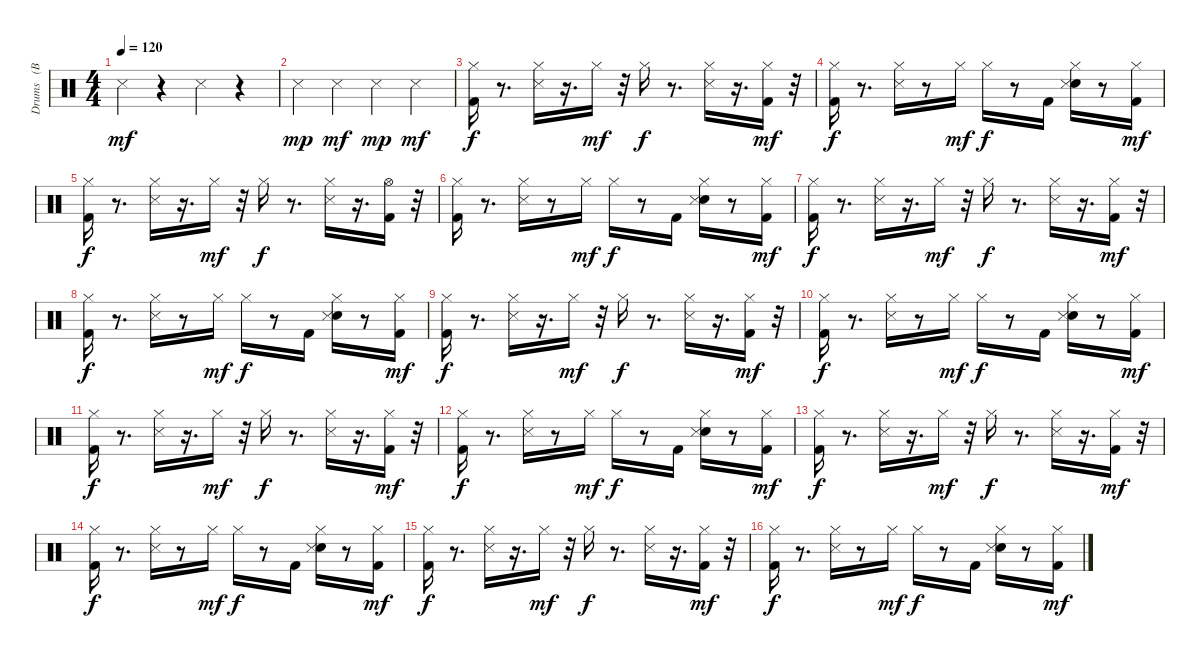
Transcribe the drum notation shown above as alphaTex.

\track ("Drums   (BB)" "Drums   (B") {instrument percussion}
\staff {score}
\articulation defaults
\ts (4 4)
\tempo 120
\clef neutral
\ks c "Snare (side stick) 3".4{dy mf}
r.4 "Snare (side stick) 3".4 r.4 |
"Snare (side stick) 3".4{dy mp} "Snare (side stick) 3".4{dy mf} "Snare (side stick) 3".4{dy mp} "Snare (side stick) 3".4{dy mf} |
("Kick (hit) 2" "Hi-Hat (closed)").16{dy f} r.8{d} ("Hi-Hat (closed)" "Snare (side stick) 3").16 r.16{d} "Hi-Hat (closed)".16{dy mf} r.32 "Hi-Hat (closed)".16{dy f} r.8{d} ("Hi-Hat (closed)" "Snare (side stick) 3").16 r.16{d} ("Kick (hit) 2" "Hi-Hat (closed)").16{dy mf} r.32 |
("Kick (hit) 2" "Hi-Hat (closed)").16{dy f} r.8{d} ("Hi-Hat (closed)" "Snare (side stick) 3").16 r.8 "Hi-Hat (closed)".16{dy mf} "Hi-Hat (closed)".16{dy f} r.8 "Kick (hit) 2".16 ("Snare (hit) 2" "Hi-Hat (closed)" "Snare (side stick) 3").16 r.8 ("Kick (hit) 2" "Hi-Hat (closed)").16{dy mf} |
("Kick (hit) 2" "Hi-Hat (closed)").16{dy f} r.8{d} ("Hi-Hat (closed)" "Snare (side stick) 3").16 r.16{d} "Hi-Hat (closed)".16{dy mf} r.32 "Hi-Hat (closed)".16{dy f} r.8{d} ("Hi-Hat (closed)" "Snare (side stick) 3").16 r.16{d} ("Kick (hit) 2" "Hi-Hat (open)").16 r.32 |
("Kick (hit) 2" "Hi-Hat (closed)").16 r.8{d} ("Hi-Hat (closed)" "Snare (side stick) 3").16 r.8 "Hi-Hat (closed)".16{dy mf} "Hi-Hat (closed)".16{dy f} r.8 "Kick (hit) 2".16 ("Snare (hit) 2" "Hi-Hat (closed)" "Snare (side stick) 3").16 r.8 ("Kick (hit) 2" "Hi-Hat (closed)").16{dy mf} |
("Kick (hit) 2" "Hi-Hat (closed)").16{dy f} r.8{d} ("Hi-Hat (closed)" "Snare (side stick) 3").16 r.16{d} "Hi-Hat (closed)".16{dy mf} r.32 "Hi-Hat (closed)".16{dy f} r.8{d} ("Hi-Hat (closed)" "Snare (side stick) 3").16 r.16{d} ("Kick (hit) 2" "Hi-Hat (closed)").16{dy mf} r.32 |
("Kick (hit) 2" "Hi-Hat (closed)").16{dy f} r.8{d} ("Hi-Hat (closed)" "Snare (side stick) 3").16 r.8 "Hi-Hat (closed)".16{dy mf} "Hi-Hat (closed)".16{dy f} r.8 "Kick (hit) 2".16 ("Snare (hit) 2" "Hi-Hat (closed)" "Snare (side stick) 3").16 r.8 ("Kick (hit) 2" "Hi-Hat (closed)").16{dy mf} |
("Kick (hit) 2" "Hi-Hat (closed)").16{dy f} r.8{d} ("Hi-Hat (closed)" "Snare (side stick) 3").16 r.16{d} "Hi-Hat (closed)".16{dy mf} r.32 "Hi-Hat (closed)".16{dy f} r.8{d} ("Hi-Hat (closed)" "Snare (side stick) 3").16 r.16{d} ("Kick (hit) 2" "Hi-Hat (closed)").16{dy mf} r.32 |
("Kick (hit) 2" "Hi-Hat (closed)").16{dy f} r.8{d} ("Hi-Hat (closed)" "Snare (side stick) 3").16 r.8 "Hi-Hat (closed)".16{dy mf} "Hi-Hat (closed)".16{dy f} r.8 "Kick (hit) 2".16 ("Snare (hit) 2" "Hi-Hat (closed)" "Snare (side stick) 3").16 r.8 ("Kick (hit) 2" "Hi-Hat (closed)").16{dy mf} |
("Kick (hit) 2" "Hi-Hat (closed)").16{dy f} r.8{d} ("Hi-Hat (closed)" "Snare (side stick) 3").16 r.16{d} "Hi-Hat (closed)".16{dy mf} r.32 "Hi-Hat (closed)".16{dy f} r.8{d} ("Hi-Hat (closed)" "Snare (side stick) 3").16 r.16{d} ("Kick (hit) 2" "Hi-Hat (closed)").16{dy mf} r.32 |
("Kick (hit) 2" "Hi-Hat (closed)").16{dy f} r.8{d} ("Hi-Hat (closed)" "Snare (side stick) 3").16 r.8 "Hi-Hat (closed)".16{dy mf} "Hi-Hat (closed)".16{dy f} r.8 "Kick (hit) 2".16 ("Snare (hit) 2" "Hi-Hat (closed)" "Snare (side stick) 3").16 r.8 ("Kick (hit) 2" "Hi-Hat (closed)").16{dy mf} |
("Kick (hit) 2" "Hi-Hat (closed)").16{dy f} r.8{d} ("Hi-Hat (closed)" "Snare (side stick) 3").16 r.16{d} "Hi-Hat (closed)".16{dy mf} r.32 "Hi-Hat (closed)".16{dy f} r.8{d} ("Hi-Hat (closed)" "Snare (side stick) 3").16 r.16{d} ("Kick (hit) 2" "Hi-Hat (closed)").16{dy mf} r.32 |
("Kick (hit) 2" "Hi-Hat (closed)").16{dy f} r.8{d} ("Hi-Hat (closed)" "Snare (side stick) 3").16 r.8 "Hi-Hat (closed)".16{dy mf} "Hi-Hat (closed)".16{dy f} r.8 "Kick (hit) 2".16 ("Snare (hit) 2" "Hi-Hat (closed)" "Snare (side stick) 3").16 r.8 ("Kick (hit) 2" "Hi-Hat (closed)").16{dy mf} |
("Kick (hit) 2" "Hi-Hat (closed)").16{dy f} r.8{d} ("Hi-Hat (closed)" "Snare (side stick) 3").16 r.16{d} "Hi-Hat (closed)".16{dy mf} r.32 "Hi-Hat (closed)".16{dy f} r.8{d} ("Hi-Hat (closed)" "Snare (side stick) 3").16 r.16{d} ("Kick (hit) 2" "Hi-Hat (closed)").16{dy mf} r.32 |
("Kick (hit) 2" "Hi-Hat (closed)").16{dy f} r.8{d} ("Hi-Hat (closed)" "Snare (side stick) 3").16 r.8 "Hi-Hat (closed)".16{dy mf} "Hi-Hat (closed)".16{dy f} r.8 "Kick (hit) 2".16 ("Snare (hit) 2" "Hi-Hat (closed)" "Snare (side stick) 3").16 r.8 ("Kick (hit) 2" "Hi-Hat (closed)").16{dy mf}
